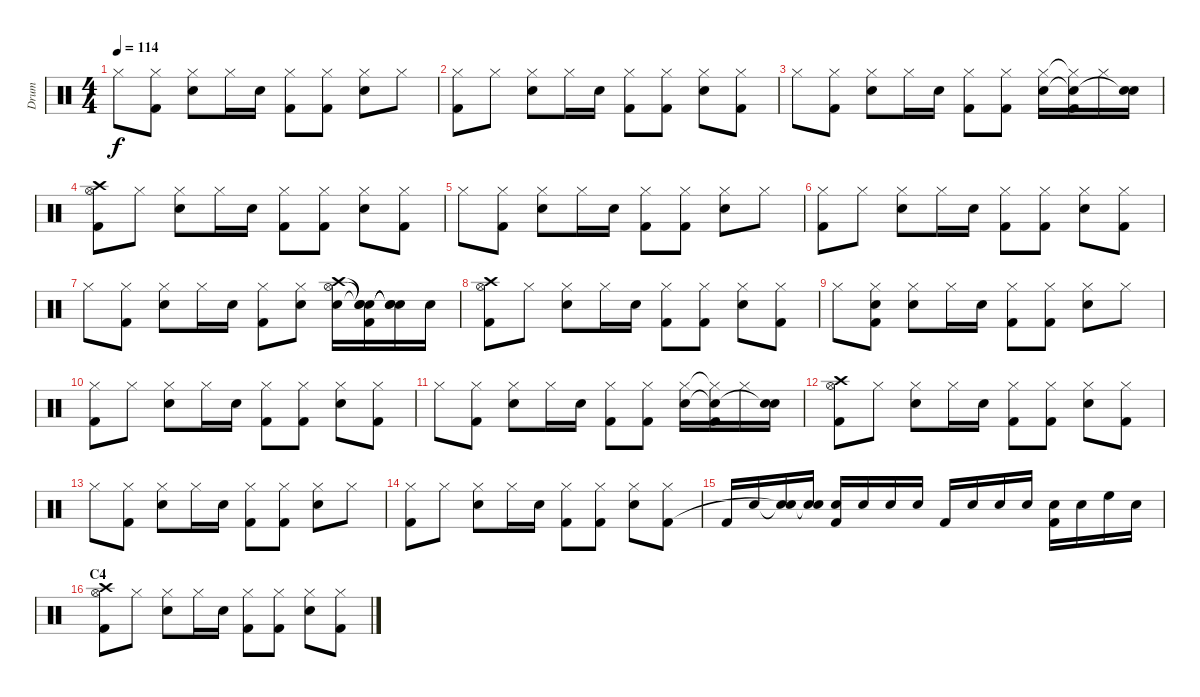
\track ("Drum" "Drum") {instrument percussion}
\staff {score}
\articulation defaults
\ts (4 4)
\tempo 114
\clef neutral
\ks c "Hi-Hat (closed)".8{dy f}
("Hi-Hat (closed)" "Kick (hit) 2").8 ("Hi-Hat (closed)" "Snare (hit) 2").8 "Hi-Hat (closed)".16 "Snare (hit) 2".16 ("Hi-Hat (closed)" "Kick (hit) 2").8 ("Hi-Hat (closed)" "Kick (hit) 2").8 ("Hi-Hat (closed)" "Snare (hit) 2").8 "Hi-Hat (closed)".8 |
("Hi-Hat (closed)" "Kick (hit) 2").8 "Hi-Hat (closed)".8 ("Hi-Hat (closed)" "Snare (hit) 2").8 "Hi-Hat (closed)".16 "Snare (hit) 2".16 ("Hi-Hat (closed)" "Kick (hit) 2").8 ("Hi-Hat (closed)" "Kick (hit) 2").8 ("Hi-Hat (closed)" "Snare (hit) 2").8 ("Hi-Hat (closed)" "Kick (hit) 2").8 |
"Hi-Hat (closed)".8 ("Hi-Hat (closed)" "Kick (hit) 2").8 ("Hi-Hat (closed)" "Snare (hit) 2").8 "Hi-Hat (closed)".16 "Snare (hit) 2".16 ("Hi-Hat (closed)" "Kick (hit) 2").8 ("Hi-Hat (closed)" "Kick (hit) 2").8 ("Hi-Hat (closed)" "Snare (hit) 2").16 ("Hi-Hat (closed)"{t} "Snare (hit)"{t} "Kick (hit) 2").16 "Hi-Hat (closed)".16 ("Snare (hit) 2" "Snare (hit)"{t}).16 |
("Crash high (hit)" "Hi-Hat (open)" "Kick (hit) 2").8 "Hi-Hat (closed)".8 ("Hi-Hat (closed)" "Snare (hit) 2").8 "Hi-Hat (closed)".16 "Snare (hit) 2".16 ("Hi-Hat (closed)" "Kick (hit) 2").8 ("Hi-Hat (closed)" "Kick (hit) 2").8 ("Hi-Hat (closed)" "Snare (hit) 2").8 ("Hi-Hat (closed)" "Kick (hit) 2").8 |
"Hi-Hat (closed)".8 ("Hi-Hat (closed)" "Kick (hit) 2").8 ("Hi-Hat (closed)" "Snare (hit) 2").8 "Hi-Hat (closed)".16 "Snare (hit) 2".16 ("Hi-Hat (closed)" "Kick (hit) 2").8 ("Hi-Hat (closed)" "Kick (hit) 2").8 ("Hi-Hat (closed)" "Snare (hit) 2").8 "Hi-Hat (closed)".8 |
("Hi-Hat (closed)" "Kick (hit) 2").8 "Hi-Hat (closed)".8 ("Hi-Hat (closed)" "Snare (hit) 2").8 "Hi-Hat (closed)".16 "Snare (hit) 2".16 ("Hi-Hat (closed)" "Kick (hit) 2").8 ("Hi-Hat (closed)" "Kick (hit) 2").8 ("Hi-Hat (closed)" "Snare (hit) 2").8 ("Hi-Hat (closed)" "Kick (hit) 2").8 |
"Hi-Hat (closed)".8 ("Hi-Hat (closed)" "Kick (hit) 2").8 ("Hi-Hat (closed)" "Snare (hit) 2").8 "Hi-Hat (closed)".16 "Snare (hit) 2".16 ("Hi-Hat (closed)" "Kick (hit) 2").8 ("Hi-Hat (closed)" "Snare (hit) 2").8 ("Crash high (hit)" "Hi-Hat (open)" "Snare (hit) 2").16 ("Snare (hit)"{t} "Snare (hit)"{t} "Snare (hit)"{t} "Kick (hit) 2").16 ("Snare (hit)"{t} "Snare (hit)"{t} "Snare (hit)"{t}).16 "Snare (hit) 2".16 |
("Crash high (hit)" "Hi-Hat (open)" "Kick (hit) 2").8 "Hi-Hat (closed)".8 ("Hi-Hat (closed)" "Snare (hit) 2").8 "Hi-Hat (closed)".16 "Snare (hit) 2".16 ("Hi-Hat (closed)" "Kick (hit) 2").8 ("Hi-Hat (closed)" "Kick (hit) 2").8 ("Hi-Hat (closed)" "Snare (hit) 2").8 ("Hi-Hat (closed)" "Kick (hit) 2").8 |
"Hi-Hat (closed)".8 ("Hi-Hat (closed)" "Snare (hit) 2" "Kick (hit) 2").8 ("Hi-Hat (closed)" "Snare (hit) 2").8 "Hi-Hat (closed)".16 "Snare (hit) 2".16 ("Hi-Hat (closed)" "Kick (hit) 2").8 ("Hi-Hat (closed)" "Kick (hit) 2").8 ("Hi-Hat (closed)" "Snare (hit) 2").8 "Hi-Hat (closed)".8 |
("Hi-Hat (closed)" "Kick (hit) 2").8 "Hi-Hat (closed)".8 ("Hi-Hat (closed)" "Snare (hit) 2").8 "Hi-Hat (closed)".16 "Snare (hit) 2".16 ("Hi-Hat (closed)" "Kick (hit) 2").8 ("Hi-Hat (closed)" "Kick (hit) 2").8 ("Hi-Hat (closed)" "Snare (hit) 2").8 ("Hi-Hat (closed)" "Kick (hit) 2").8 |
"Hi-Hat (closed)".8 ("Hi-Hat (closed)" "Kick (hit) 2").8 ("Hi-Hat (closed)" "Snare (hit) 2").8 "Hi-Hat (closed)".16 "Snare (hit) 2".16 ("Hi-Hat (closed)" "Kick (hit) 2").8 ("Hi-Hat (closed)" "Kick (hit) 2").8 ("Hi-Hat (closed)" "Snare (hit) 2").16 ("Hi-Hat (closed)"{t} "Snare (hit)"{t} "Kick (hit) 2").16 "Hi-Hat (closed)".16 ("Snare (hit) 2" "Snare (hit)"{t}).16 |
("Crash high (hit)" "Hi-Hat (open)" "Kick (hit) 2").8 "Hi-Hat (closed)".8 ("Hi-Hat (closed)" "Snare (hit) 2").8 "Hi-Hat (closed)".16 "Snare (hit) 2".16 ("Hi-Hat (closed)" "Kick (hit) 2").8 ("Hi-Hat (closed)" "Kick (hit) 2").8 ("Hi-Hat (closed)" "Snare (hit) 2").8 ("Hi-Hat (closed)" "Kick (hit) 2").8 |
"Hi-Hat (closed)".8 ("Hi-Hat (closed)" "Kick (hit) 2").8 ("Hi-Hat (closed)" "Snare (hit) 2").8 "Hi-Hat (closed)".16 "Snare (hit) 2".16 ("Hi-Hat (closed)" "Kick (hit) 2").8 ("Hi-Hat (closed)" "Kick (hit) 2").8 ("Hi-Hat (closed)" "Snare (hit) 2").8 "Hi-Hat (closed)".8 |
("Hi-Hat (closed)" "Kick (hit) 2").8 "Hi-Hat (closed)".8 ("Hi-Hat (closed)" "Snare (hit) 2").8 "Hi-Hat (closed)".16 "Snare (hit) 2".16 ("Hi-Hat (closed)" "Kick (hit) 2").8 ("Hi-Hat (closed)" "Kick (hit) 2").8 ("Hi-Hat (closed)" "Snare (hit) 2").8 ("Hi-Hat (closed)" "Kick (hit) 2").8 |
"Kick (hit) 2".16 "Snare (hit) 2".16 ("Snare (hit)"{t} "Snare (hit)"{t}).16 ("Snare (hit) 2" "Snare (hit)"{t}).16 ("Snare (hit) 2" "Kick (hit) 2").16 "Snare (hit) 2".16 "Snare (hit) 2".16 "Snare (hit) 2".16 "Kick (hit) 2".16 "Snare (hit) 2".16 "Snare (hit) 2".16 "Snare (hit) 2".16 ("Snare (hit) 2" "Kick (hit) 2").16 "Snare (hit) 2".16 "High Floor Tom (hit)".16 "Snare (hit) 2".16 |
\section ("" "C4")
("Crash high (hit)" "Hi-Hat (open)" "Kick (hit) 2").8 "Hi-Hat (closed)".8 ("Hi-Hat (closed)" "Snare (hit) 2").8 "Hi-Hat (closed)".16 "Snare (hit) 2".16 ("Hi-Hat (closed)" "Kick (hit) 2").8 ("Hi-Hat (closed)" "Kick (hit) 2").8 ("Hi-Hat (closed)" "Snare (hit) 2").8 ("Hi-Hat (closed)" "Kick (hit) 2").8
